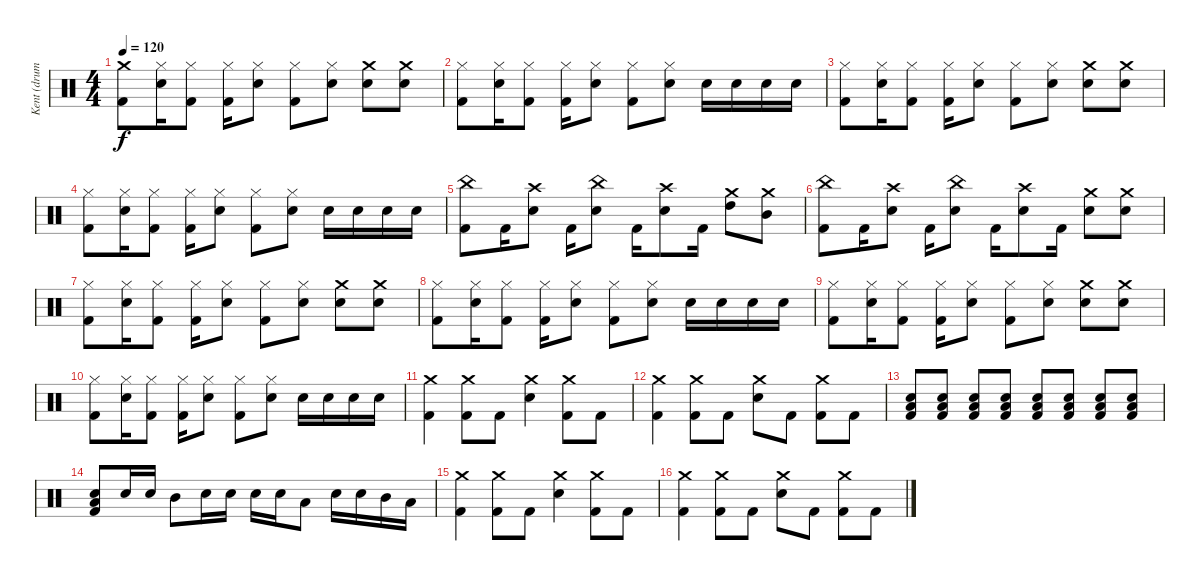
\track ("Kent (drums)" "Kent (drum") {instrument percussion}
\staff {score}
\articulation defaults
\ts (4 4)
\tempo 120
\clef neutral
\ks c
("Crash medium (hit)" "Kick (hit) 2").8{dy f} ("Hi-Hat (closed)" "Snare (hit) 2").16 ("Hi-Hat (closed)" "Kick (hit) 2").8 ("Hi-Hat (closed)" "Kick (hit) 2").16 ("Hi-Hat (closed)" "Snare (hit) 2").8 ("Hi-Hat (closed)" "Kick (hit) 2").8 ("Hi-Hat (closed)" "Snare (hit) 2").8 ("Crash medium (hit)" "Snare (hit) 2").8 ("Crash medium (hit)" "Snare (hit) 2").8 |
("Hi-Hat (closed)" "Kick (hit) 2").8 ("Hi-Hat (closed)" "Snare (hit) 2").16 ("Hi-Hat (closed)" "Kick (hit) 2").8 ("Hi-Hat (closed)" "Kick (hit) 2").16 ("Hi-Hat (closed)" "Snare (hit) 2").8 ("Hi-Hat (closed)" "Kick (hit) 2").8 ("Hi-Hat (closed)" "Snare (hit) 2").8 "Snare (hit) 2".16 "Snare (hit) 2".16 "Snare (hit) 2".16 "Snare (hit) 2".16 |
("Hi-Hat (closed)" "Kick (hit) 2").8 ("Hi-Hat (closed)" "Snare (hit) 2").16 ("Hi-Hat (closed)" "Kick (hit) 2").8 ("Hi-Hat (closed)" "Kick (hit) 2").16 ("Hi-Hat (closed)" "Snare (hit) 2").8 ("Hi-Hat (closed)" "Kick (hit) 2").8 ("Hi-Hat (closed)" "Snare (hit) 2").8 ("Crash medium (hit)" "Snare (hit) 2").8 ("Crash medium (hit)" "Snare (hit) 2").8 |
("Hi-Hat (closed)" "Kick (hit) 2").8 ("Hi-Hat (closed)" "Snare (hit) 2").16 ("Hi-Hat (closed)" "Kick (hit) 2").8 ("Hi-Hat (closed)" "Kick (hit) 2").16 ("Hi-Hat (closed)" "Snare (hit) 2").8 ("Hi-Hat (closed)" "Kick (hit) 2").8 ("Hi-Hat (closed)" "Snare (hit) 2").8 "Snare (hit) 2".16 "Snare (hit) 2".16 "Snare (hit) 2".16 "Snare (hit) 2".16 |
("China (hit)" "Kick (hit) 2").8 "Kick (hit) 2".16 ("Crash high (hit)" "Snare (hit) 2").8 "Kick (hit) 2".16 ("China (hit)" "Snare (hit) 2").8 "Kick (hit) 2".16 ("Crash high (hit)" "Snare (hit) 2").8 "Kick (hit) 2".16 ("Crash medium (hit)" "High Tom (hit)").8 ("Crash medium (hit)" "Mid Tom (hit)").8 |
("China (hit)" "Kick (hit) 2").8 "Kick (hit) 2".16 ("Crash high (hit)" "Snare (hit) 2").8 "Kick (hit) 2".16 ("China (hit)" "Snare (hit) 2").8 "Kick (hit) 2".16 ("Crash high (hit)" "Snare (hit) 2").8 "Kick (hit) 2".16 ("Crash medium (hit)" "Snare (hit) 2").8 ("Crash medium (hit)" "Snare (hit) 2").8 |
("Hi-Hat (closed)" "Kick (hit) 2").8 ("Hi-Hat (closed)" "Snare (hit) 2").16 ("Hi-Hat (closed)" "Kick (hit) 2").8 ("Hi-Hat (closed)" "Kick (hit) 2").16 ("Hi-Hat (closed)" "Snare (hit) 2").8 ("Hi-Hat (closed)" "Kick (hit) 2").8 ("Hi-Hat (closed)" "Snare (hit) 2").8 ("Crash medium (hit)" "Snare (hit) 2").8 ("Crash medium (hit)" "Snare (hit) 2").8 |
("Hi-Hat (closed)" "Kick (hit) 2").8 ("Hi-Hat (closed)" "Snare (hit) 2").16 ("Hi-Hat (closed)" "Kick (hit) 2").8 ("Hi-Hat (closed)" "Kick (hit) 2").16 ("Hi-Hat (closed)" "Snare (hit) 2").8 ("Hi-Hat (closed)" "Kick (hit) 2").8 ("Hi-Hat (closed)" "Snare (hit) 2").8 "Snare (hit) 2".16 "Snare (hit) 2".16 "Snare (hit) 2".16 "Snare (hit) 2".16 |
("Hi-Hat (closed)" "Kick (hit) 2").8 ("Hi-Hat (closed)" "Snare (hit) 2").16 ("Hi-Hat (closed)" "Kick (hit) 2").8 ("Hi-Hat (closed)" "Kick (hit) 2").16 ("Hi-Hat (closed)" "Snare (hit) 2").8 ("Hi-Hat (closed)" "Kick (hit) 2").8 ("Hi-Hat (closed)" "Snare (hit) 2").8 ("Crash medium (hit)" "Snare (hit) 2").8 ("Crash medium (hit)" "Snare (hit) 2").8 |
("Hi-Hat (closed)" "Kick (hit) 2").8 ("Hi-Hat (closed)" "Snare (hit) 2").16 ("Hi-Hat (closed)" "Kick (hit) 2").8 ("Hi-Hat (closed)" "Kick (hit) 2").16 ("Hi-Hat (closed)" "Snare (hit) 2").8 ("Hi-Hat (closed)" "Kick (hit) 2").8 ("Hi-Hat (closed)" "Snare (hit) 2").8 "Snare (hit) 2".16 "Snare (hit) 2".16 "Snare (hit) 2".16 "Snare (hit) 2".16 |
("Crash medium (hit)" "Kick (hit) 2").4 ("Crash medium (hit)" "Kick (hit) 2").8 "Kick (hit) 2".8 ("Crash medium (hit)" "Snare (hit) 2").4 ("Crash medium (hit)" "Kick (hit) 2").8 "Kick (hit) 2".8 |
("Crash medium (hit)" "Kick (hit) 2").4 ("Crash medium (hit)" "Kick (hit) 2").8 "Kick (hit) 2".8 ("Crash medium (hit)" "Snare (hit) 2").8 "Kick (hit) 2".8 ("Crash medium (hit)" "Kick (hit) 2").8 "Kick (hit) 2".8 |
("Low Floor Tom (hit)" "Snare (hit) 2" "Kick (hit) 2").8 ("Low Floor Tom (hit)" "Snare (hit) 2" "Kick (hit) 2").8 ("Low Floor Tom (hit)" "Snare (hit) 2" "Kick (hit) 2").8 ("Low Floor Tom (hit)" "Snare (hit) 2" "Kick (hit) 2").8 ("Low Floor Tom (hit)" "Snare (hit) 2" "Kick (hit) 2").8 ("Low Floor Tom (hit)" "Snare (hit) 2" "Kick (hit) 2").8 ("Low Floor Tom (hit)" "Snare (hit) 2" "Kick (hit) 2").8 ("Low Floor Tom (hit)" "Snare (hit) 2" "Kick (hit) 2").8 |
("Low Floor Tom (hit)" "Snare (hit) 2" "Kick (hit) 2").8 "Snare (hit) 2".16 "Snare (hit) 2".16 "Mid Tom (hit)".8 "Snare (hit) 2".16 "Snare (hit) 2".16 "Snare (hit) 2".16 "Snare (hit) 2".16 "Low Tom (hit)".8 "Snare (hit) 2".16 "Snare (hit) 2".16 "Mid Tom (hit)".16 "Low Tom (hit)".16 |
("Crash medium (hit)" "Kick (hit) 2").4 ("Crash medium (hit)" "Kick (hit) 2").8 "Kick (hit) 2".8 ("Crash medium (hit)" "Snare (hit) 2").4 ("Crash medium (hit)" "Kick (hit) 2").8 "Kick (hit) 2".8 |
("Crash medium (hit)" "Kick (hit) 2").4 ("Crash medium (hit)" "Kick (hit) 2").8 "Kick (hit) 2".8 ("Crash medium (hit)" "Snare (hit) 2").8 "Kick (hit) 2".8 ("Crash medium (hit)" "Kick (hit) 2").8 "Kick (hit) 2".8
